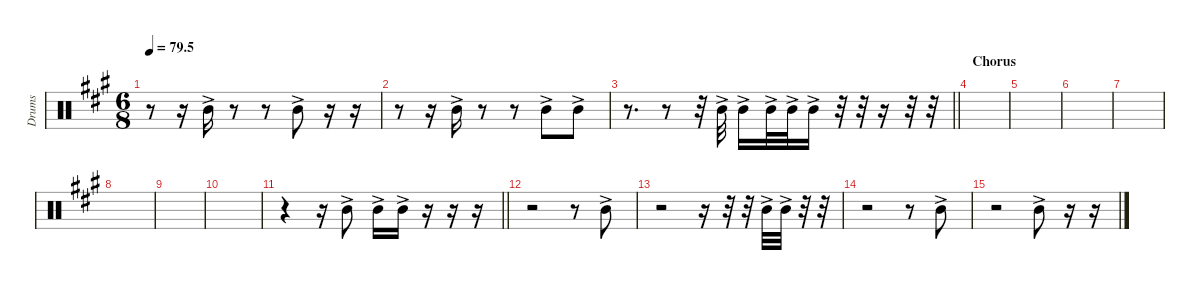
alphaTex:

\defaultSystemsLayout 4
\hideDynamics
\bracketExtendMode nobrackets
\otherSystemsTrackNameOrientation horizontal
\track ("Tom 02" "Drums") {instrument percussion}
\staff {score}
\articulation defaults
\ts (6 8)
\tempo
79.5
\accidentals auto
\clef neutral
\ottava regular
\simile none
\scale
0.333333
\ks a
r.8{dy f} r.16 "Mid Tom (hit)"{ac acc forcenatural}.16 r.8 r.8 "Mid Tom (hit)"{ac acc forcenatural}.8 r.16 r.16 |
\scale
0.333333 r.8 r.16 "Mid Tom (hit)"{ac acc forcenatural}.16 r.8 r.8 "Mid Tom (hit)"{ac acc forcenatural}.8 "Mid Tom (hit)"{ac acc forcenatural}.8 |
\scale
0.333333
\barLineRight lightlight
r.8{d} r.8 r.32 "Mid Tom (hit)"{ac acc forcenatural}.32 "Mid Tom (hit)"{ac acc forcenatural}.16 "Mid Tom (hit)"{ac acc forcenatural}.32 "Mid Tom (hit)"{ac acc forcenatural}.32 "Mid Tom (hit)"{ac acc forcenatural}.16 r.32 r.32 r.16 r.32 r.32 |
\section ("" "Chorus")
\scale
0.333333 |
\scale
0.333333 |
\scale
0.333333 |
\scale
0.333333 |
\scale
0.333333 |
\scale
0.333333 |
\scale
0.333333 |
\scale
0.333333
\barLineRight lightlight
r.4 r.16 "Mid Tom (hit)"{ac acc forcenatural}.8 "Mid Tom (hit)"{ac acc forcenatural}.16 "Mid Tom (hit)"{ac acc forcenatural}.16 r.16 r.16 r.16 |
\scale
0.333333 r.2 r.8 "Mid Tom (hit)"{ac acc forcenatural}.8 |
\scale
0.333333 r.2 r.16 r.32 r.32 "Mid Tom (hit)"{ac acc forcenatural}.32 "Mid Tom (hit)"{ac acc forcenatural}.32 r.32 r.32 |
\scale
0.333333 r.2 r.8 "Mid Tom (hit)"{ac acc forcenatural}.8 |
\scale
0.333333 r.2 "Mid Tom (hit)"{ac acc forcenatural}.8 r.16 r.16 |
\scale
0.333333
